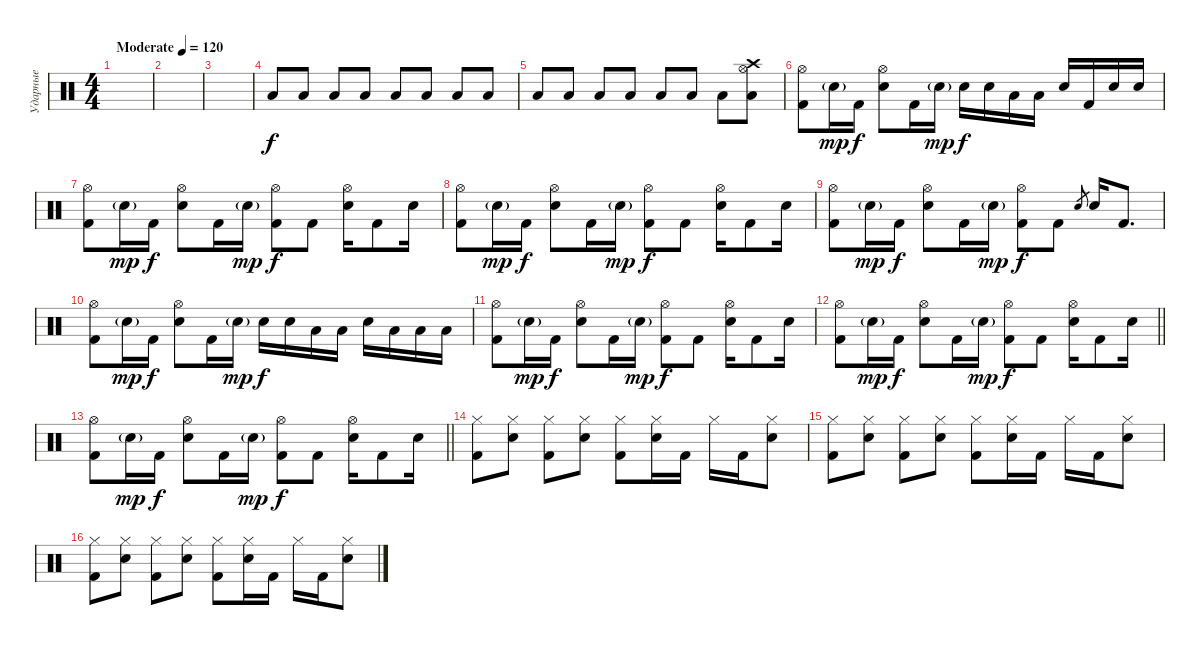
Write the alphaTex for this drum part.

\track ("Ударные" "Ударные") {instrument percussion}
\staff {score}
\articulation defaults
\ts (4 4)
\tempo (120 "Moderate")
\clef neutral
\ks c
|
|
|
"Low Floor Tom (hit)".8 "Low Floor Tom (hit)".8 "Low Floor Tom (hit)".8 "Low Floor Tom (hit)".8 "Low Floor Tom (hit)".8 "Low Floor Tom (hit)".8 "Low Floor Tom (hit)".8 "Low Floor Tom (hit)".8 |
"Low Floor Tom (hit)".8 "Low Floor Tom (hit)".8 "Low Floor Tom (hit)".8 "Low Floor Tom (hit)".8 "Low Floor Tom (hit)".8 "Low Floor Tom (hit)".8 "Low Floor Tom (hit)".8 ("Low Floor Tom (hit)" "Hi-Hat (open)" "Crash high (hit)").8 |
("Hi-Hat (open)" "Kick (hit) 2").8 "Snare (hit) 2"{g}.16{dy mp} "Kick (hit) 2".16{dy f} ("Hi-Hat (open)" "Snare (hit) 2").8 "Kick (hit) 2".16 "Snare (hit) 2"{g}.16{dy mp} "Snare (hit) 2".16{dy f} "Snare (hit) 2".16 "Low Tom (hit)".16 "Low Floor Tom (hit)".16 "Snare (hit) 2".16 "Kick (hit) 2".16 "Snare (hit) 2".16 "Snare (hit) 2".16 |
("Hi-Hat (open)" "Kick (hit) 2").8 "Snare (hit) 2"{g}.16{dy mp} "Kick (hit) 2".16{dy f} ("Hi-Hat (open)" "Snare (hit) 2").8 "Kick (hit) 2".16 "Snare (hit) 2"{g}.16{dy mp} ("Hi-Hat (open)" "Kick (hit) 2").8{dy f} "Kick (hit) 2".8 ("Hi-Hat (open)" "Snare (hit) 2").16 "Kick (hit) 2".8 "Snare (hit) 2".16 |
("Hi-Hat (open)" "Kick (hit) 2").8 "Snare (hit) 2"{g}.16{dy mp} "Kick (hit) 2".16{dy f} ("Hi-Hat (open)" "Snare (hit) 2").8 "Kick (hit) 2".16 "Snare (hit) 2"{g}.16{dy mp} ("Hi-Hat (open)" "Kick (hit) 2").8{dy f} "Kick (hit) 2".8 ("Hi-Hat (open)" "Snare (hit) 2").16 "Kick (hit) 2".8 "Snare (hit) 2".16 |
("Hi-Hat (open)" "Kick (hit) 2").8 "Snare (hit) 2"{g}.16{dy mp} "Kick (hit) 2".16{dy f} ("Hi-Hat (open)" "Snare (hit) 2").8 "Kick (hit) 2".16 "Snare (hit) 2"{g}.16{dy mp} ("Hi-Hat (open)" "Kick (hit) 2").8{dy f} "Kick (hit) 2".8 "Snare (hit) 2".8{gr} "Snare (hit) 2".16 "Kick (hit) 2".8{d} |
("Hi-Hat (open)" "Kick (hit) 2").8 "Snare (hit) 2"{g}.16{dy mp} "Kick (hit) 2".16{dy f} ("Hi-Hat (open)" "Snare (hit) 2").8 "Kick (hit) 2".16 "Snare (hit) 2"{g}.16{dy mp} "Snare (hit) 2".16{dy f} "Snare (hit) 2".16 "Low Tom (hit)".16 "Low Floor Tom (hit)".16 "Snare (hit) 2".16 "Low Tom (hit)".16 "Low Tom (hit)".16 "Low Floor Tom (hit)".16 |
("Hi-Hat (open)" "Kick (hit) 2").8 "Snare (hit) 2"{g}.16{dy mp} "Kick (hit) 2".16{dy f} ("Hi-Hat (open)" "Snare (hit) 2").8 "Kick (hit) 2".16 "Snare (hit) 2"{g}.16{dy mp} ("Hi-Hat (open)" "Kick (hit) 2").8{dy f} "Kick (hit) 2".8 ("Hi-Hat (open)" "Snare (hit) 2").16 "Kick (hit) 2".8 "Snare (hit) 2".16 |
\barLineRight lightlight
("Hi-Hat (open)" "Kick (hit) 2").8 "Snare (hit) 2"{g}.16{dy mp} "Kick (hit) 2".16{dy f} ("Hi-Hat (open)" "Snare (hit) 2").8 "Kick (hit) 2".16 "Snare (hit) 2"{g}.16{dy mp} ("Hi-Hat (open)" "Kick (hit) 2").8{dy f} "Kick (hit) 2".8 ("Hi-Hat (open)" "Snare (hit) 2").16 "Kick (hit) 2".8 "Snare (hit) 2".16 |
\barLineRight lightlight
("Hi-Hat (open)" "Kick (hit) 2").8 "Snare (hit) 2"{g}.16{dy mp} "Kick (hit) 2".16{dy f} ("Hi-Hat (open)" "Snare (hit) 2").8 "Kick (hit) 2".16 "Snare (hit) 2"{g}.16{dy mp} ("Hi-Hat (open)" "Kick (hit) 2").8{dy f} "Kick (hit) 2".8 ("Hi-Hat (open)" "Snare (hit) 2").16 "Kick (hit) 2".8 "Snare (hit) 2".16 |
("Hi-Hat (closed)" "Kick (hit) 2").8 ("Hi-Hat (closed)" "Snare (hit) 2").8 ("Hi-Hat (closed)" "Kick (hit) 2").8 ("Hi-Hat (closed)" "Snare (hit) 2").8 ("Hi-Hat (closed)" "Kick (hit) 2").8 ("Hi-Hat (closed)" "Snare (hit) 2").16 "Kick (hit) 2".16 "Hi-Hat (closed)".16 "Kick (hit) 2".16 ("Hi-Hat (closed)" "Snare (hit) 2").8 |
("Hi-Hat (closed)" "Kick (hit) 2").8 ("Hi-Hat (closed)" "Snare (hit) 2").8 ("Hi-Hat (closed)" "Kick (hit) 2").8 ("Hi-Hat (closed)" "Snare (hit) 2").8 ("Hi-Hat (closed)" "Kick (hit) 2").8 ("Hi-Hat (closed)" "Snare (hit) 2").16 "Kick (hit) 2".16 "Hi-Hat (closed)".16 "Kick (hit) 2".16 ("Hi-Hat (closed)" "Snare (hit) 2").8 |
("Hi-Hat (closed)" "Kick (hit) 2").8 ("Hi-Hat (closed)" "Snare (hit) 2").8 ("Hi-Hat (closed)" "Kick (hit) 2").8 ("Hi-Hat (closed)" "Snare (hit) 2").8 ("Hi-Hat (closed)" "Kick (hit) 2").8 ("Hi-Hat (closed)" "Snare (hit) 2").16 "Kick (hit) 2".16 "Hi-Hat (closed)".16 "Kick (hit) 2".16 ("Hi-Hat (closed)" "Snare (hit) 2").8
